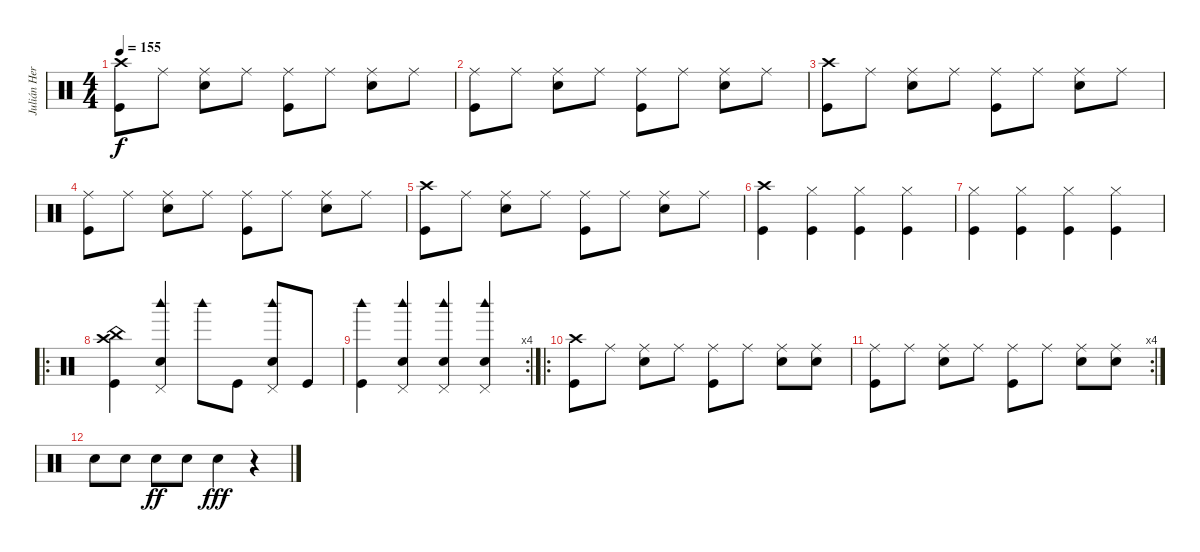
\track ("Julián Hernandez" "Julián Her") {instrument percussion}
\staff {score}
\articulation defaults
\ts (4 4)
\tempo 155
\clef neutral
\ks c
("Crash high (hit)" "Kick (hit)").8{dy f} "Ride (middle)".8 ("Ride (middle)" "Snare (hit) 2").8 "Ride (middle)".8 ("Ride (middle)" "Kick (hit)").8 "Ride (middle)".8 ("Ride (middle)" "Snare (hit) 2").8 "Ride (middle)".8 |
("Ride (middle)" "Kick (hit)").8 "Ride (middle)".8 ("Ride (middle)" "Snare (hit) 2").8 "Ride (middle)".8 ("Ride (middle)" "Kick (hit)").8 "Ride (middle)".8 ("Ride (middle)" "Snare (hit) 2").8 "Ride (middle)".8 |
("Crash high (hit)" "Kick (hit)").8 "Ride (middle)".8 ("Ride (middle)" "Snare (hit) 2").8 "Ride (middle)".8 ("Ride (middle)" "Kick (hit)").8 "Ride (middle)".8 ("Ride (middle)" "Snare (hit) 2").8 "Ride (middle)".8 |
("Ride (middle)" "Kick (hit)").8 "Ride (middle)".8 ("Ride (middle)" "Snare (hit) 2").8 "Ride (middle)".8 ("Ride (middle)" "Kick (hit)").8 "Ride (middle)".8 ("Ride (middle)" "Snare (hit) 2").8 "Ride (middle)".8 |
("Crash high (hit)" "Kick (hit)").8 "Ride (middle)".8 ("Ride (middle)" "Snare (hit) 2").8 "Ride (middle)".8 ("Ride (middle)" "Kick (hit)").8 "Ride (middle)".8 ("Ride (middle)" "Snare (hit) 2").8 "Ride (middle)".8 |
("Crash high (hit)" "Kick (hit)").4 ("Hi-Hat (closed)" "Kick (hit)").4 ("Hi-Hat (closed)" "Kick (hit)").4 ("Hi-Hat (closed)" "Kick (hit)").4 |
("Hi-Hat (closed)" "Kick (hit)").4 ("Hi-Hat (closed)" "Kick (hit)").4 ("Hi-Hat (closed)" "Kick (hit)").4 ("Hi-Hat (closed)" "Kick (hit)").4 |
\ro
("Crash high (hit)" "China (hit)" "Kick (hit)").4 ("Woodblock high (hit)" "Pedal Hi-Hat (hit)" "Snare (hit) 2").4 "Woodblock high (hit)".8 "Kick (hit)".8 ("Woodblock high (hit)" "Pedal Hi-Hat (hit)" "Snare (hit) 2").8 "Kick (hit)".8 |
\rc 4
("Woodblock high (hit)" "Kick (hit)").4 ("Woodblock high (hit)" "Pedal Hi-Hat (hit)" "Snare (hit) 2").4 ("Woodblock high (hit)" "Pedal Hi-Hat (hit)" "Snare (hit) 2").4 ("Woodblock high (hit)" "Pedal Hi-Hat (hit)" "Snare (hit) 2").4 |
\ro
("Crash high (hit)" "Kick (hit)").8 "Ride (middle)".8 ("Ride (middle)" "Snare (hit) 2").8 "Ride (middle)".8 ("Ride (middle)" "Kick (hit)").8 "Ride (middle)".8 ("Ride (middle)" "Snare (hit) 2").8 ("Ride (middle)" "Snare (hit) 2").8 |
\rc 4
("Ride (middle)" "Kick (hit)").8 "Ride (middle)".8 ("Ride (middle)" "Snare (hit) 2").8 "Ride (middle)".8 ("Ride (middle)" "Kick (hit)").8 "Ride (middle)".8 ("Ride (middle)" "Snare (hit) 2").8 ("Ride (middle)" "Snare (hit) 2").8 |
"Snare (hit) 2".8 "Snare (hit) 2".8 "Snare (hit) 2".8{dy ff} "Snare (hit) 2".8 "Snare (hit) 2".4{dy fff} r.4
